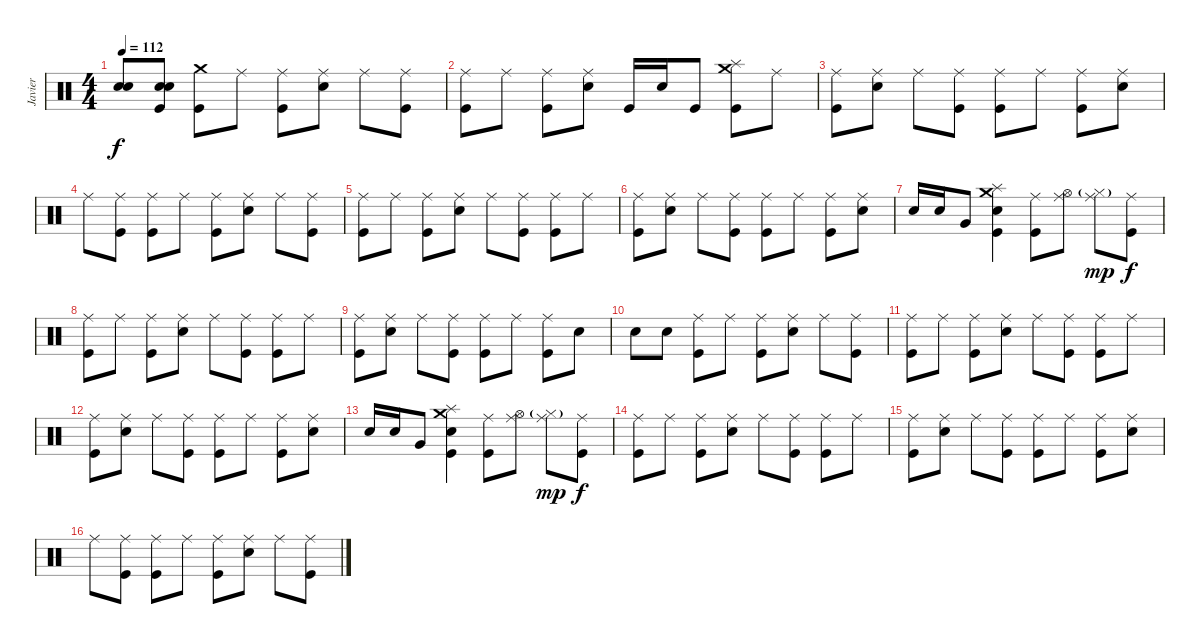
\track ("Javier" "Javier") {instrument percussion}
\staff {score}
\articulation defaults
\ts (4 4)
\tempo 112
\clef neutral
\ks c
("Snare (hit) 2" "Snare (hit) 2").8{dy f} ("Snare (hit) 2" "Snare (hit) 2" "Kick (hit)").8 ("Crash medium (hit)" "Kick (hit)").8 "Ride (middle)".8 ("Ride (middle)" "Kick (hit)").8 ("Ride (middle)" "Snare (hit) 2").8 "Ride (middle)".8 ("Ride (middle)" "Kick (hit)").8 |
("Ride (middle)" "Kick (hit)").8 "Ride (middle)".8 ("Ride (middle)" "Kick (hit)").8 ("Ride (middle)" "Snare (hit) 2").8 "Kick (hit)".16 "Snare (hit) 2".16 "Kick (hit)".8 ("Crash medium (hit)" "Splash (hit)" "Kick (hit)").8 "Ride (middle)".8 |
("Ride (middle)" "Kick (hit)").8 ("Ride (middle)" "Snare (hit) 2").8 "Ride (middle)".8 ("Ride (middle)" "Kick (hit)").8 ("Ride (middle)" "Kick (hit)").8 "Ride (middle)".8 ("Ride (middle)" "Kick (hit)").8 ("Ride (middle)" "Snare (hit) 2").8 |
"Ride (middle)".8 ("Ride (middle)" "Kick (hit)").8 ("Ride (middle)" "Kick (hit)").8 "Ride (middle)".8 ("Ride (middle)" "Kick (hit)").8 ("Ride (middle)" "Snare (hit) 2").8 "Ride (middle)".8 ("Ride (middle)" "Kick (hit)").8 |
("Ride (middle)" "Kick (hit)").8 "Ride (middle)".8 ("Ride (middle)" "Kick (hit)").8 ("Ride (middle)" "Snare (hit) 2").8 "Ride (middle)".8 ("Ride (middle)" "Kick (hit)").8 ("Ride (middle)" "Kick (hit)").8 "Ride (middle)".8 |
("Ride (middle)" "Kick (hit)").8 ("Ride (middle)" "Snare (hit) 2").8 "Ride (middle)".8 ("Ride (middle)" "Kick (hit)").8 ("Ride (middle)" "Kick (hit)").8 "Ride (middle)".8 ("Ride (middle)" "Kick (hit)").8 ("Ride (middle)" "Snare (hit) 2").8 |
"Snare (hit) 2".16 "Snare (hit) 2".16 "Very Low Tom (hit)".8 ("Crash medium (hit)" "Splash (hit)" "Snare (hit) 2" "Kick (hit)").4 ("Ride (middle)" "Kick (hit)").8 ("Ride (middle)" "Hi-Hat (open)").8 ("Ride (middle)" "Hi-Hat (closed)"{g}).8{dy mp} ("Ride (middle)" "Kick (hit)").8{dy f} |
("Ride (middle)" "Kick (hit)").8 "Ride (middle)".8 ("Ride (middle)" "Kick (hit)").8 ("Ride (middle)" "Snare (hit) 2").8 "Ride (middle)".8 ("Ride (middle)" "Kick (hit)").8 ("Ride (middle)" "Kick (hit)").8 "Ride (middle)".8 |
("Ride (middle)" "Kick (hit)").8 ("Ride (middle)" "Snare (hit) 2").8 "Ride (middle)".8 ("Ride (middle)" "Kick (hit)").8 ("Ride (middle)" "Kick (hit)").8 "Ride (middle)".8 ("Ride (middle)" "Kick (hit)").8 "Snare (hit) 2".8 |
"Snare (hit) 2".8 "Snare (hit) 2".8 ("Ride (middle)" "Kick (hit)").8 "Ride (middle)".8 ("Ride (middle)" "Kick (hit)").8 ("Ride (middle)" "Snare (hit) 2").8 "Ride (middle)".8 ("Ride (middle)" "Kick (hit)").8 |
("Ride (middle)" "Kick (hit)").8 "Ride (middle)".8 ("Ride (middle)" "Kick (hit)").8 ("Ride (middle)" "Snare (hit) 2").8 "Ride (middle)".8 ("Ride (middle)" "Kick (hit)").8 ("Ride (middle)" "Kick (hit)").8 "Ride (middle)".8 |
("Ride (middle)" "Kick (hit)").8 ("Ride (middle)" "Snare (hit) 2").8 "Ride (middle)".8 ("Ride (middle)" "Kick (hit)").8 ("Ride (middle)" "Kick (hit)").8 "Ride (middle)".8 ("Ride (middle)" "Kick (hit)").8 ("Ride (middle)" "Snare (hit) 2").8 |
"Snare (hit) 2".16 "Snare (hit) 2".16 "Very Low Tom (hit)".8 ("Crash medium (hit)" "Splash (hit)" "Snare (hit) 2" "Kick (hit)").4 ("Ride (middle)" "Kick (hit)").8 ("Ride (middle)" "Hi-Hat (open)").8 ("Ride (middle)" "Hi-Hat (closed)"{g}).8{dy mp} ("Ride (middle)" "Kick (hit)").8{dy f} |
("Ride (middle)" "Kick (hit)").8 "Ride (middle)".8 ("Ride (middle)" "Kick (hit)").8 ("Ride (middle)" "Snare (hit) 2").8 "Ride (middle)".8 ("Ride (middle)" "Kick (hit)").8 ("Ride (middle)" "Kick (hit)").8 "Ride (middle)".8 |
("Ride (middle)" "Kick (hit)").8 ("Ride (middle)" "Snare (hit) 2").8 "Ride (middle)".8 ("Ride (middle)" "Kick (hit)").8 ("Ride (middle)" "Kick (hit)").8 "Ride (middle)".8 ("Ride (middle)" "Kick (hit)").8 ("Ride (middle)" "Snare (hit) 2").8 |
"Ride (middle)".8 ("Ride (middle)" "Kick (hit)").8 ("Ride (middle)" "Kick (hit)").8 "Ride (middle)".8 ("Ride (middle)" "Kick (hit)").8 ("Ride (middle)" "Snare (hit) 2").8 "Ride (middle)".8 ("Ride (middle)" "Kick (hit)").8
